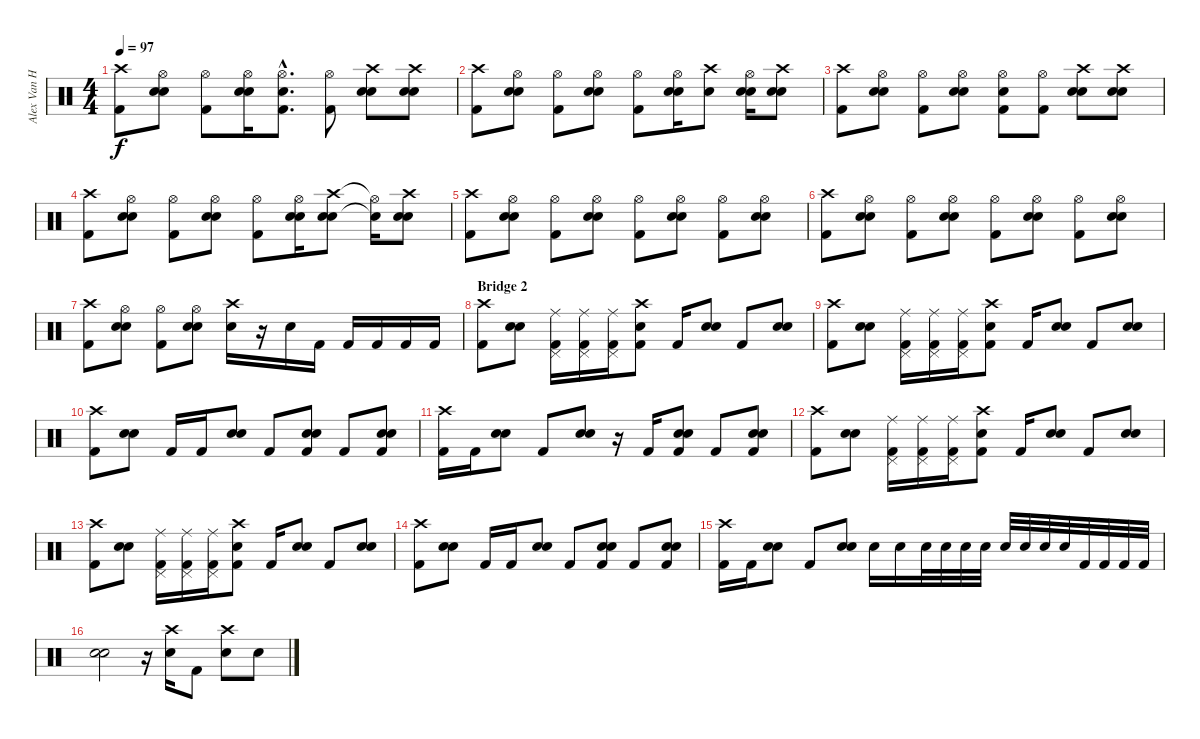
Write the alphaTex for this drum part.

\track ("Alex Van Halen" "Alex Van H") {instrument percussion}
\staff {score}
\articulation defaults
\ts (4 4)
\tempo 97
\clef neutral
\ks c
("Crash high (hit)" "Kick (hit) 2").8{dy f} ("Hi-Hat (open)" "Snare (hit) 2" "Electric Snare (hit)").8 ("Hi-Hat (open)" "Kick (hit) 2").8 ("Hi-Hat (open)" "Snare (hit) 2" "Electric Snare (hit)").16 ("Hi-Hat (open)"{hac} "Electric Snare (hit)"{hac} "Kick (hit) 2"{hac}).8{d} ("Hi-Hat (open)" "Kick (hit) 2").8 ("Crash high (hit)" "Snare (hit) 2" "Electric Snare (hit)").8 ("Crash high (hit)" "Snare (hit) 2" "Electric Snare (hit)").8 |
("Crash high (hit)" "Kick (hit) 2").8 ("Hi-Hat (open)" "Snare (hit) 2" "Electric Snare (hit)").8 ("Hi-Hat (open)" "Kick (hit) 2").8 ("Hi-Hat (open)" "Snare (hit) 2" "Electric Snare (hit)").8 ("Hi-Hat (open)" "Kick (hit) 2").8 ("Hi-Hat (open)" "Snare (hit) 2" "Electric Snare (hit)").16 ("Crash high (hit)" "Electric Snare (hit)").8 ("Hi-Hat (open)" "Snare (hit) 2" "Electric Snare (hit)").16 ("Crash high (hit)" "Snare (hit) 2" "Electric Snare (hit)").8 |
("Crash high (hit)" "Kick (hit) 2").8 ("Hi-Hat (open)" "Snare (hit) 2" "Electric Snare (hit)").8 ("Hi-Hat (open)" "Kick (hit) 2").8 ("Hi-Hat (open)" "Snare (hit) 2" "Electric Snare (hit)").8 ("Hi-Hat (open)" "Electric Snare (hit)" "Kick (hit) 2").8 ("Hi-Hat (open)" "Kick (hit) 2").8 ("Crash high (hit)" "Snare (hit) 2" "Electric Snare (hit)").8 ("Crash high (hit)" "Snare (hit) 2" "Electric Snare (hit)").8 |
("Crash high (hit)" "Kick (hit) 2").8 ("Hi-Hat (open)" "Snare (hit) 2" "Electric Snare (hit)").8 ("Hi-Hat (open)" "Kick (hit) 2").8 ("Hi-Hat (open)" "Snare (hit) 2" "Electric Snare (hit)").8 ("Hi-Hat (open)" "Kick (hit) 2").8 ("Hi-Hat (open)" "Snare (hit) 2" "Electric Snare (hit)").16 ("Crash high (hit)" "Snare (hit) 2" "Electric Snare (hit)").8 ("Hi-Hat (open)"{t} "Electric Snare (hit)"{t}).16 ("Crash high (hit)" "Snare (hit) 2" "Electric Snare (hit)").8 |
("Crash high (hit)" "Kick (hit) 2").8 ("Hi-Hat (open)" "Snare (hit) 2" "Electric Snare (hit)").8 ("Hi-Hat (open)" "Kick (hit) 2").8 ("Hi-Hat (open)" "Snare (hit) 2" "Electric Snare (hit)").8 ("Hi-Hat (open)" "Kick (hit) 2").8 ("Hi-Hat (open)" "Snare (hit) 2" "Electric Snare (hit)").8 ("Hi-Hat (open)" "Kick (hit) 2").8 ("Hi-Hat (open)" "Snare (hit) 2" "Electric Snare (hit)").8 |
("Crash high (hit)" "Kick (hit) 2").8 ("Hi-Hat (open)" "Snare (hit) 2" "Electric Snare (hit)").8 ("Hi-Hat (open)" "Kick (hit) 2").8 ("Hi-Hat (open)" "Snare (hit) 2" "Electric Snare (hit)").8 ("Hi-Hat (open)" "Kick (hit) 2").8 ("Hi-Hat (open)" "Snare (hit) 2" "Electric Snare (hit)").8 ("Hi-Hat (open)" "Kick (hit) 2").8 ("Hi-Hat (open)" "Snare (hit) 2" "Electric Snare (hit)").8 |
("Crash high (hit)" "Kick (hit) 2").8 ("Hi-Hat (open)" "Snare (hit) 2" "Electric Snare (hit)").8 ("Hi-Hat (open)" "Kick (hit) 2").8 ("Hi-Hat (open)" "Snare (hit) 2" "Electric Snare (hit)").8 ("Crash high (hit)" "Electric Snare (hit)").16 r.16 "Snare (hit) 2".16 "Kick (hit) 2".16 "Kick (hit) 2".16 "Kick (hit) 2".16 "Kick (hit) 2".16 "Kick (hit) 2".16 |
\section ("" "Bridge 2")
("Crash high (hit)" "Kick (hit) 2").8 ("Electric Snare (hit)" "Snare (hit) 2").8 ("Ride (middle)" "Pedal Hi-Hat (hit)" "Kick (hit) 2").16 ("Ride (middle)" "Pedal Hi-Hat (hit)" "Kick (hit) 2").16 ("Ride (middle)" "Pedal Hi-Hat (hit)" "Kick (hit) 2").16 ("Crash high (hit)" "Snare (hit) 2" "Kick (hit) 2").8 "Kick (hit) 2".16 ("Electric Snare (hit)" "Snare (hit) 2").8 "Kick (hit) 2".8 ("Electric Snare (hit)" "Snare (hit) 2").8 |
("Crash high (hit)" "Kick (hit) 2").8 ("Electric Snare (hit)" "Snare (hit) 2").8 ("Ride (middle)" "Pedal Hi-Hat (hit)" "Kick (hit) 2").16 ("Ride (middle)" "Pedal Hi-Hat (hit)" "Kick (hit) 2").16 ("Ride (middle)" "Pedal Hi-Hat (hit)" "Kick (hit) 2").16 ("Crash high (hit)" "Snare (hit) 2" "Kick (hit) 2").8 "Kick (hit) 2".16 ("Electric Snare (hit)" "Snare (hit) 2").8 "Kick (hit) 2".8 ("Electric Snare (hit)" "Snare (hit) 2").8 |
("Crash high (hit)" "Kick (hit) 2").8 ("Electric Snare (hit)" "Snare (hit) 2").8 "Kick (hit) 2".16 "Kick (hit) 2".16 ("Electric Snare (hit)" "Snare (hit) 2").8 "Kick (hit) 2".8 ("Electric Snare (hit)" "Snare (hit) 2" "Kick (hit) 2").8 "Kick (hit) 2".8 ("Electric Snare (hit)" "Snare (hit) 2" "Kick (hit) 2").8 |
("Crash high (hit)" "Kick (hit) 2").16 "Kick (hit) 2".16 ("Electric Snare (hit)" "Snare (hit) 2").8 "Kick (hit) 2".8 ("Electric Snare (hit)" "Snare (hit) 2").8 r.16 "Kick (hit) 2".16 ("Electric Snare (hit)" "Snare (hit) 2" "Kick (hit) 2").8 "Kick (hit) 2".8 ("Electric Snare (hit)" "Snare (hit) 2" "Kick (hit) 2").8 |
("Crash high (hit)" "Kick (hit) 2").8 ("Electric Snare (hit)" "Snare (hit) 2").8 ("Ride (middle)" "Pedal Hi-Hat (hit)" "Kick (hit) 2").16 ("Ride (middle)" "Pedal Hi-Hat (hit)" "Kick (hit) 2").16 ("Ride (middle)" "Pedal Hi-Hat (hit)" "Kick (hit) 2").16 ("Crash high (hit)" "Snare (hit) 2" "Kick (hit) 2").8 "Kick (hit) 2".16 ("Electric Snare (hit)" "Snare (hit) 2").8 "Kick (hit) 2".8 ("Electric Snare (hit)" "Snare (hit) 2").8 |
("Crash high (hit)" "Kick (hit) 2").8 ("Electric Snare (hit)" "Snare (hit) 2").8 ("Ride (middle)" "Pedal Hi-Hat (hit)" "Kick (hit) 2").16 ("Ride (middle)" "Pedal Hi-Hat (hit)" "Kick (hit) 2").16 ("Ride (middle)" "Pedal Hi-Hat (hit)" "Kick (hit) 2").16 ("Crash high (hit)" "Snare (hit) 2" "Kick (hit) 2").8 "Kick (hit) 2".16 ("Electric Snare (hit)" "Snare (hit) 2").8 "Kick (hit) 2".8 ("Electric Snare (hit)" "Snare (hit) 2").8 |
("Crash high (hit)" "Kick (hit) 2").8 ("Electric Snare (hit)" "Snare (hit) 2").8 "Kick (hit) 2".16 "Kick (hit) 2".16 ("Electric Snare (hit)" "Snare (hit) 2").8 "Kick (hit) 2".8 ("Electric Snare (hit)" "Snare (hit) 2" "Kick (hit) 2").8 "Kick (hit) 2".8 ("Electric Snare (hit)" "Snare (hit) 2" "Kick (hit) 2").8 |
("Crash high (hit)" "Kick (hit) 2").16 "Kick (hit) 2".16 ("Electric Snare (hit)" "Snare (hit) 2").8 "Kick (hit) 2".8 ("Electric Snare (hit)" "Snare (hit) 2").8 "Snare (hit) 2".16 "Snare (hit) 2".16 "Electric Snare (hit)".32 "Electric Snare (hit)".32 "Electric Snare (hit)".32 "Electric Snare (hit)".32 "Snare (hit) 2".32 "Snare (hit) 2".32 "Snare (hit) 2".32 "Snare (hit) 2".32 "Kick (hit) 2".32 "Kick (hit) 2".32 "Kick (hit) 2".32 "Kick (hit) 2".32 |
("Electric Snare (hit)" "Snare (hit) 2").2 r.16 ("Crash high (hit)" "Snare (hit) 2").16 "Kick (hit) 2".8 ("Crash high (hit)" "Snare (hit) 2").8 "Snare (hit) 2".8
